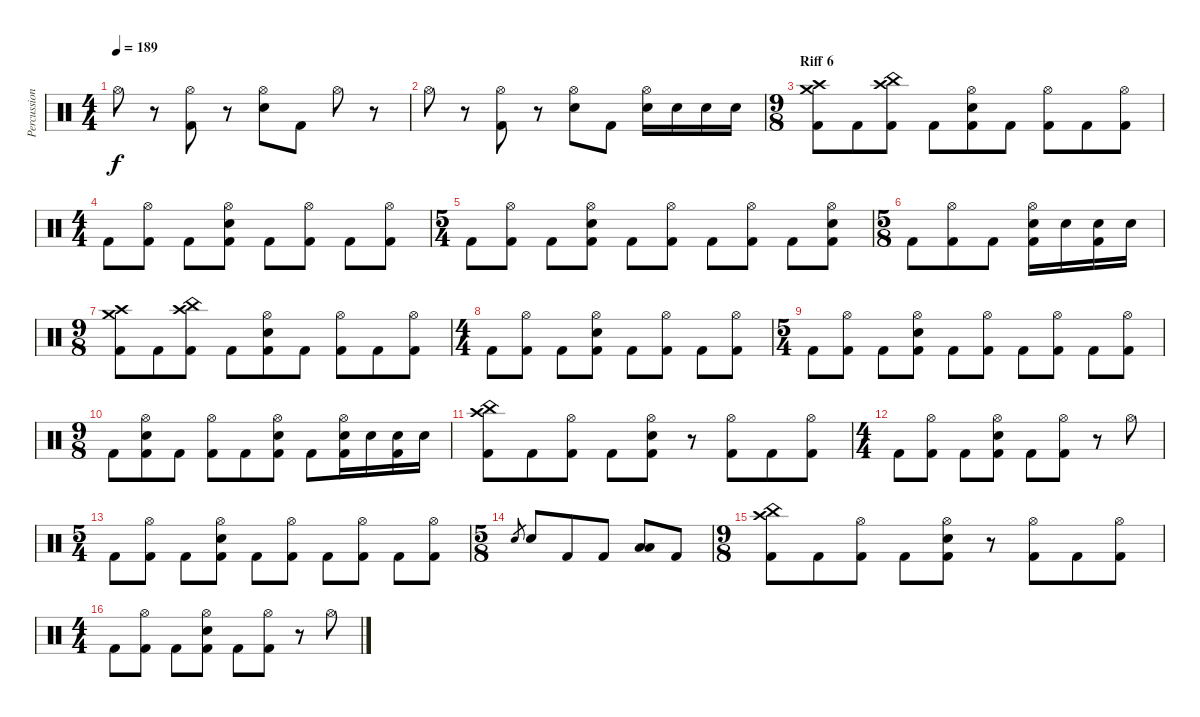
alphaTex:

\track ("Percussion" "Percussion") {instrument percussion}
\staff {score}
\articulation defaults
\ts (4 4)
\tempo 189
\clef neutral
\ks c "Hi-Hat (open)".8{dy f}
r.8 ("Hi-Hat (open)" "Kick (hit) 2").8 r.8 ("Hi-Hat (open)" "Electric Snare (hit)").8 "Kick (hit) 2".8 "Hi-Hat (open)".8 r.8 |
"Hi-Hat (open)".8 r.8 ("Hi-Hat (open)" "Kick (hit) 2").8 r.8 ("Hi-Hat (open)" "Electric Snare (hit)").8 "Kick (hit) 2".8 ("Hi-Hat (open)" "Electric Snare (hit)").16 "Electric Snare (hit)".16 "Electric Snare (hit)".16 "Electric Snare (hit)".16 |
\ts (9 8)
\section ("" "Riff 6")
("Crash medium (hit)" "Crash high (hit)" "Kick (hit) 2").8 "Kick (hit) 2".8 ("China (hit)" "Crash high (hit)" "Kick (hit) 2").8 "Kick (hit) 2".8 ("Hi-Hat (open)" "Electric Snare (hit)" "Kick (hit) 2").8 "Kick (hit) 2".8 ("Hi-Hat (open)" "Kick (hit) 2").8 "Kick (hit) 2".8 ("Hi-Hat (open)" "Kick (hit) 2").8 |
\ts (4 4)
"Kick (hit) 2".8 ("Hi-Hat (open)" "Kick (hit) 2").8 "Kick (hit) 2".8 ("Hi-Hat (open)" "Electric Snare (hit)" "Kick (hit) 2").8 "Kick (hit) 2".8 ("Hi-Hat (open)" "Kick (hit) 2").8 "Kick (hit) 2".8 ("Hi-Hat (open)" "Kick (hit) 2").8 |
\ts (5 4)
"Kick (hit) 2".8 ("Hi-Hat (open)" "Kick (hit) 2").8 "Kick (hit) 2".8 ("Hi-Hat (open)" "Electric Snare (hit)" "Kick (hit) 2").8 "Kick (hit) 2".8 ("Hi-Hat (open)" "Kick (hit) 2").8 "Kick (hit) 2".8 ("Hi-Hat (open)" "Kick (hit) 2").8 "Kick (hit) 2".8 ("Hi-Hat (open)" "Electric Snare (hit)" "Kick (hit) 2").8 |
\ts (5 8)
"Kick (hit) 2".8 ("Hi-Hat (open)" "Kick (hit) 2").8 "Kick (hit) 2".8 ("Hi-Hat (open)" "Electric Snare (hit)" "Kick (hit) 2").16 "Electric Snare (hit)".16 ("Electric Snare (hit)" "Kick (hit) 2").16 "Electric Snare (hit)".16 |
\ts (9 8)
("Crash medium (hit)" "Crash high (hit)" "Kick (hit) 2").8 "Kick (hit) 2".8 ("China (hit)" "Crash high (hit)" "Kick (hit) 2").8 "Kick (hit) 2".8 ("Hi-Hat (open)" "Electric Snare (hit)" "Kick (hit) 2").8 "Kick (hit) 2".8 ("Hi-Hat (open)" "Kick (hit) 2").8 "Kick (hit) 2".8 ("Hi-Hat (open)" "Kick (hit) 2").8 |
\ts (4 4)
"Kick (hit) 2".8 ("Hi-Hat (open)" "Kick (hit) 2").8 "Kick (hit) 2".8 ("Hi-Hat (open)" "Electric Snare (hit)" "Kick (hit) 2").8 "Kick (hit) 2".8 ("Hi-Hat (open)" "Kick (hit) 2").8 "Kick (hit) 2".8 ("Hi-Hat (open)" "Kick (hit) 2").8 |
\ts (5 4)
"Kick (hit) 2".8 ("Hi-Hat (open)" "Kick (hit) 2").8 "Kick (hit) 2".8 ("Hi-Hat (open)" "Electric Snare (hit)" "Kick (hit) 2").8 "Kick (hit) 2".8 ("Hi-Hat (open)" "Kick (hit) 2").8 "Kick (hit) 2".8 ("Hi-Hat (open)" "Kick (hit) 2").8 "Kick (hit) 2".8 ("Hi-Hat (open)" "Kick (hit) 2").8 |
\ts (9 8)
"Kick (hit) 2".8 ("Hi-Hat (open)" "Electric Snare (hit)" "Kick (hit) 2").8 "Kick (hit) 2".8 ("Hi-Hat (open)" "Kick (hit) 2").8 "Kick (hit) 2".8 ("Hi-Hat (open)" "Electric Snare (hit)" "Kick (hit) 2").8 "Kick (hit) 2".8 ("Hi-Hat (open)" "Electric Snare (hit)" "Kick (hit) 2").16 "Electric Snare (hit)".16 ("Electric Snare (hit)" "Kick (hit) 2").16 "Electric Snare (hit)".16 |
("China (hit)" "Crash high (hit)" "Kick (hit) 2").8 "Kick (hit) 2".8 ("Hi-Hat (open)" "Kick (hit) 2").8 "Kick (hit) 2".8 ("Hi-Hat (open)" "Electric Snare (hit)" "Kick (hit) 2").8 r.8 ("Hi-Hat (open)" "Kick (hit) 2").8 "Kick (hit) 2".8 ("Hi-Hat (open)" "Kick (hit) 2").8 |
\ts (4 4)
"Kick (hit) 2".8 ("Hi-Hat (open)" "Kick (hit) 2").8 "Kick (hit) 2".8 ("Hi-Hat (open)" "Electric Snare (hit)" "Kick (hit) 2").8 "Kick (hit) 2".8 ("Hi-Hat (open)" "Kick (hit) 2").8 r.8 "Hi-Hat (open)".8 |
\ts (5 4)
"Kick (hit) 2".8 ("Hi-Hat (open)" "Kick (hit) 2").8 "Kick (hit) 2".8 ("Hi-Hat (open)" "Electric Snare (hit)" "Kick (hit) 2").8 "Kick (hit) 2".8 ("Hi-Hat (open)" "Kick (hit) 2").8 "Kick (hit) 2".8 ("Hi-Hat (open)" "Kick (hit) 2").8 "Kick (hit) 2".8 ("Hi-Hat (open)" "Kick (hit) 2").8 |
\ts (5 8)
"Electric Snare (hit)".8{gr} "Electric Snare (hit)".8 "Kick (hit) 2".8 "Kick (hit) 2".8 ("Low Tom (hit)" "Low Floor Tom (hit)").8 "Kick (hit) 2".8 |
\ts (9 8)
("China (hit)" "Crash high (hit)" "Kick (hit) 2").8 "Kick (hit) 2".8 ("Hi-Hat (open)" "Kick (hit) 2").8 "Kick (hit) 2".8 ("Hi-Hat (open)" "Electric Snare (hit)" "Kick (hit) 2").8 r.8 ("Hi-Hat (open)" "Kick (hit) 2").8 "Kick (hit) 2".8 ("Hi-Hat (open)" "Kick (hit) 2").8 |
\ts (4 4)
"Kick (hit) 2".8 ("Hi-Hat (open)" "Kick (hit) 2").8 "Kick (hit) 2".8 ("Hi-Hat (open)" "Electric Snare (hit)" "Kick (hit) 2").8 "Kick (hit) 2".8 ("Hi-Hat (open)" "Kick (hit) 2").8 r.8 "Hi-Hat (open)".8
